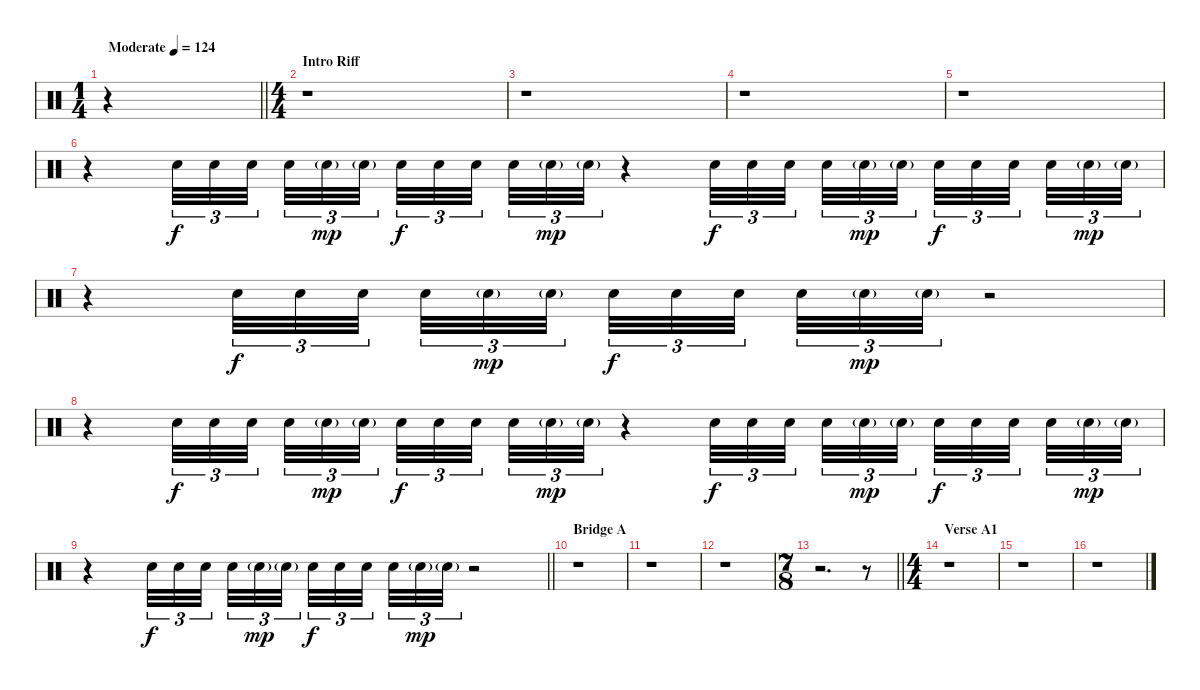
\track "" {instrument percussion}
\staff {score}
\articulation defaults
\ts (1 4)
\tempo (124 "Moderate")
\clef neutral
\barLineRight lightlight
\ks c
r.4{dy f} |
\ts (4 4)
\section ("" "Intro Riff")
r.1 |
r.1 |
r.1 |
r.1 |
r.4 "Electric Snare (hit)".32{tu (3 2)} "Electric Snare (hit)".32{tu (3 2)} "Electric Snare (hit)".32{tu (3 2) beam splitsecondary} "Electric Snare (hit)".32{tu (3 2)} "Electric Snare (hit)"{g}.32{tu (3 2) dy mp} "Electric Snare (hit)"{g}.32{tu (3 2) beam splitsecondary} "Electric Snare (hit)".32{tu (3 2) dy f} "Electric Snare (hit)".32{tu (3 2)} "Electric Snare (hit)".32{tu (3 2) beam splitsecondary} "Electric Snare (hit)".32{tu (3 2)} "Electric Snare (hit)"{g}.32{tu (3 2) dy mp} "Electric Snare (hit)"{g}.32{tu (3 2)} r.4 "Electric Snare (hit)".32{tu (3 2) dy f} "Electric Snare (hit)".32{tu (3 2)} "Electric Snare (hit)".32{tu (3 2) beam splitsecondary} "Electric Snare (hit)".32{tu (3 2)} "Electric Snare (hit)"{g}.32{tu (3 2) dy mp} "Electric Snare (hit)"{g}.32{tu (3 2) beam splitsecondary} "Electric Snare (hit)".32{tu (3 2) dy f} "Electric Snare (hit)".32{tu (3 2)} "Electric Snare (hit)".32{tu (3 2) beam splitsecondary} "Electric Snare (hit)".32{tu (3 2)} "Electric Snare (hit)"{g}.32{tu (3 2) dy mp} "Electric Snare (hit)"{g}.32{tu (3 2)} |
r.4 "Electric Snare (hit)".32{tu (3 2) dy f} "Electric Snare (hit)".32{tu (3 2)} "Electric Snare (hit)".32{tu (3 2) beam splitsecondary} "Electric Snare (hit)".32{tu (3 2)} "Electric Snare (hit)"{g}.32{tu (3 2) dy mp} "Electric Snare (hit)"{g}.32{tu (3 2) beam splitsecondary} "Electric Snare (hit)".32{tu (3 2) dy f} "Electric Snare (hit)".32{tu (3 2)} "Electric Snare (hit)".32{tu (3 2) beam splitsecondary} "Electric Snare (hit)".32{tu (3 2)} "Electric Snare (hit)"{g}.32{tu (3 2) dy mp} "Electric Snare (hit)"{g}.32{tu (3 2)} r.2 |
r.4 "Electric Snare (hit)".32{tu (3 2) dy f} "Electric Snare (hit)".32{tu (3 2)} "Electric Snare (hit)".32{tu (3 2) beam splitsecondary} "Electric Snare (hit)".32{tu (3 2)} "Electric Snare (hit)"{g}.32{tu (3 2) dy mp} "Electric Snare (hit)"{g}.32{tu (3 2) beam splitsecondary} "Electric Snare (hit)".32{tu (3 2) dy f} "Electric Snare (hit)".32{tu (3 2)} "Electric Snare (hit)".32{tu (3 2) beam splitsecondary} "Electric Snare (hit)".32{tu (3 2)} "Electric Snare (hit)"{g}.32{tu (3 2) dy mp} "Electric Snare (hit)"{g}.32{tu (3 2)} r.4 "Electric Snare (hit)".32{tu (3 2) dy f} "Electric Snare (hit)".32{tu (3 2)} "Electric Snare (hit)".32{tu (3 2) beam splitsecondary} "Electric Snare (hit)".32{tu (3 2)} "Electric Snare (hit)"{g}.32{tu (3 2) dy mp} "Electric Snare (hit)"{g}.32{tu (3 2) beam splitsecondary} "Electric Snare (hit)".32{tu (3 2) dy f} "Electric Snare (hit)".32{tu (3 2)} "Electric Snare (hit)".32{tu (3 2) beam splitsecondary} "Electric Snare (hit)".32{tu (3 2)} "Electric Snare (hit)"{g}.32{tu (3 2) dy mp} "Electric Snare (hit)"{g}.32{tu (3 2)} |
\barLineRight lightlight
r.4 "Electric Snare (hit)".32{tu (3 2) dy f} "Electric Snare (hit)".32{tu (3 2)} "Electric Snare (hit)".32{tu (3 2) beam splitsecondary} "Electric Snare (hit)".32{tu (3 2)} "Electric Snare (hit)"{g}.32{tu (3 2) dy mp} "Electric Snare (hit)"{g}.32{tu (3 2) beam splitsecondary} "Electric Snare (hit)".32{tu (3 2) dy f} "Electric Snare (hit)".32{tu (3 2)} "Electric Snare (hit)".32{tu (3 2) beam splitsecondary} "Electric Snare (hit)".32{tu (3 2)} "Electric Snare (hit)"{g}.32{tu (3 2) dy mp} "Electric Snare (hit)"{g}.32{tu (3 2)} r.2 |
\section ("" "Bridge A")
r.1 |
r.1 |
r.1 |
\ts (7 8)
\barLineRight lightlight
r.2{d} r.8 |
\ts (4 4)
\section ("" "Verse A1")
r.1 |
r.1 |
r.1
